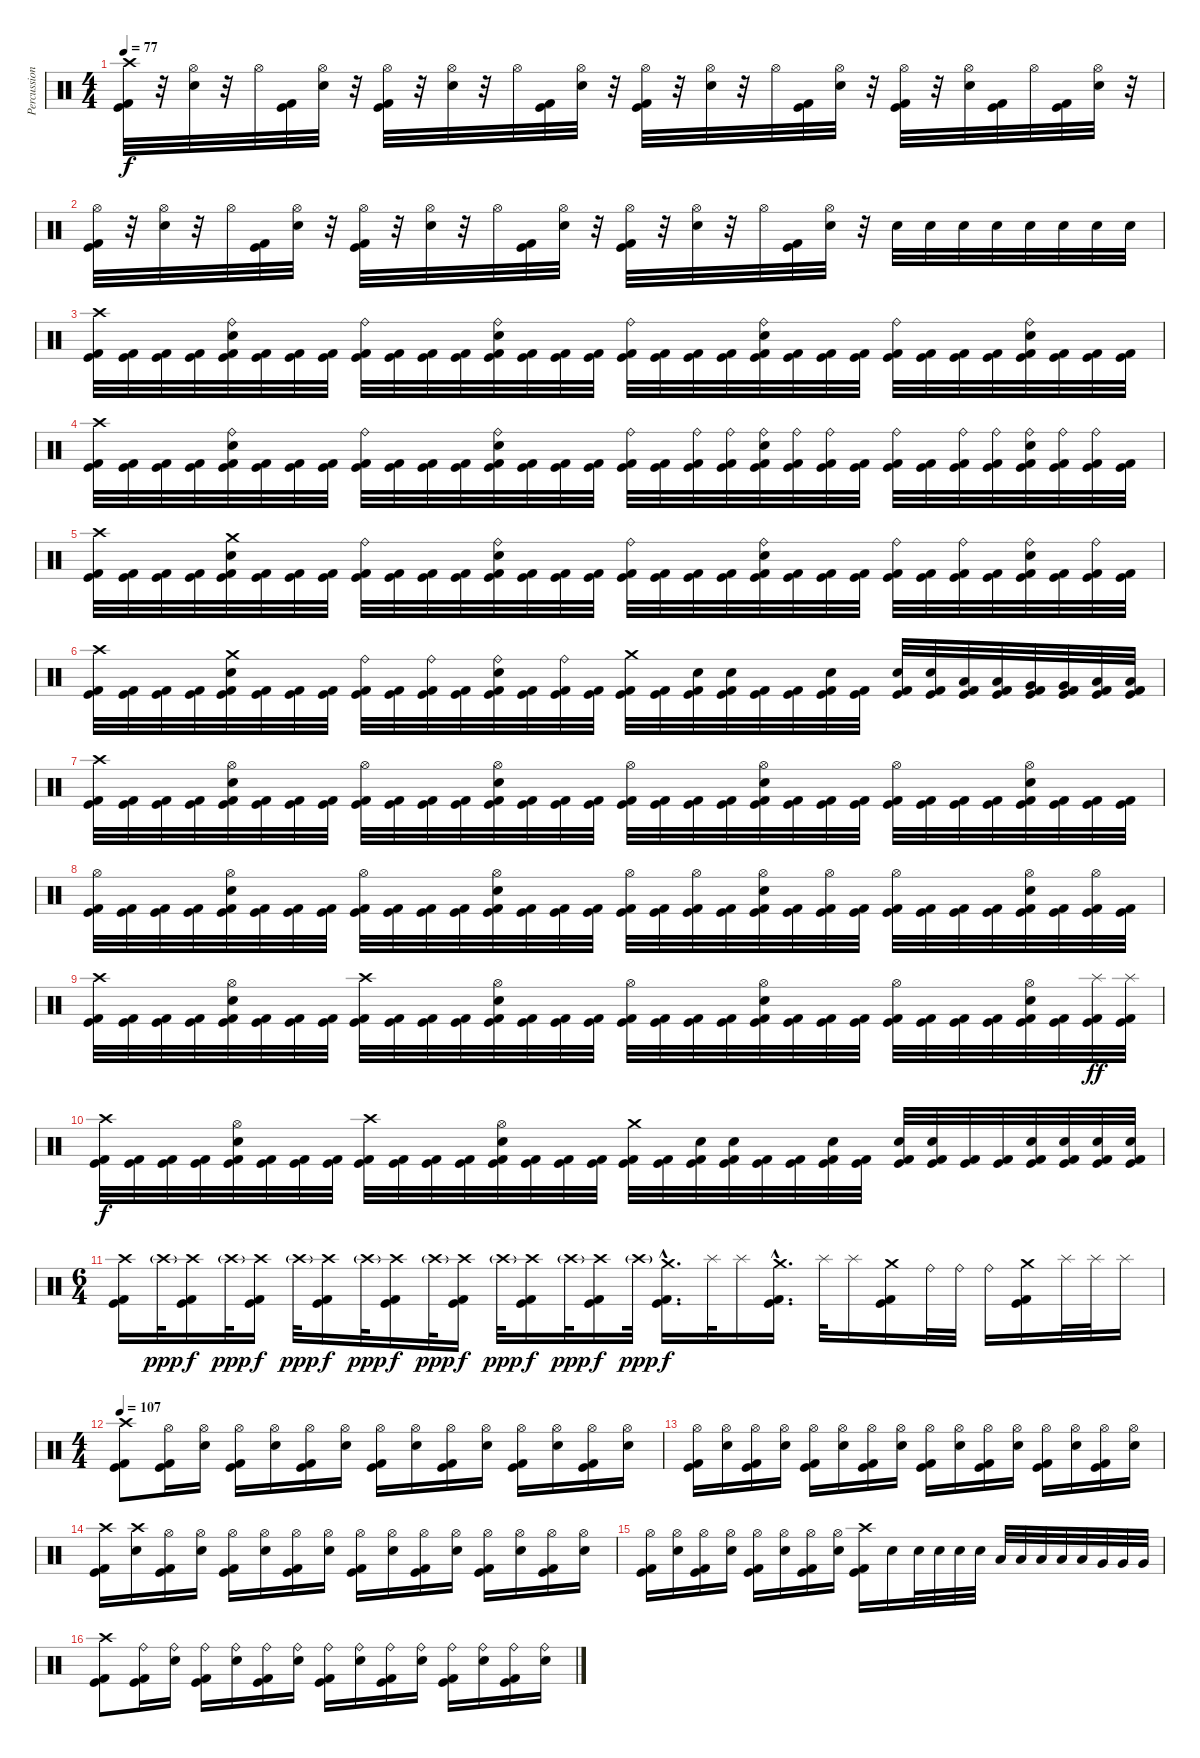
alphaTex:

\track ("Percussion" "Percussion") {instrument percussion}
\staff {score}
\articulation defaults
\ts (4 4)
\tempo 77
\clef neutral
\ks c
("Crash high (hit)" "Kick (hit)" "Kick (hit) 2").32{dy f} r.32 ("Hi-Hat (open)" "Electric Snare (hit)").32 r.32 "Hi-Hat (open)".32 ("Kick (hit)" "Kick (hit) 2").32 ("Hi-Hat (open)" "Electric Snare (hit)").32 r.32 ("Hi-Hat (open)" "Kick (hit)" "Kick (hit) 2").32 r.32 ("Hi-Hat (open)" "Electric Snare (hit)").32 r.32 "Hi-Hat (open)".32 ("Kick (hit)" "Kick (hit) 2").32 ("Hi-Hat (open)" "Electric Snare (hit)").32 r.32 ("Hi-Hat (open)" "Kick (hit)" "Kick (hit) 2").32 r.32 ("Hi-Hat (open)" "Electric Snare (hit)").32 r.32 "Hi-Hat (open)".32 ("Kick (hit)" "Kick (hit) 2").32 ("Hi-Hat (open)" "Electric Snare (hit)").32 r.32 ("Hi-Hat (open)" "Kick (hit)" "Kick (hit) 2").32 r.32 ("Hi-Hat (open)" "Electric Snare (hit)").32 ("Kick (hit)" "Kick (hit) 2").32 "Hi-Hat (open)".32 ("Kick (hit)" "Kick (hit) 2").32 ("Hi-Hat (open)" "Electric Snare (hit)").32 r.32 |
("Hi-Hat (open)" "Kick (hit)" "Kick (hit) 2").32 r.32 ("Hi-Hat (open)" "Electric Snare (hit)").32 r.32 "Hi-Hat (open)".32 ("Kick (hit)" "Kick (hit) 2").32 ("Hi-Hat (open)" "Electric Snare (hit)").32 r.32 ("Hi-Hat (open)" "Kick (hit)" "Kick (hit) 2").32 r.32 ("Hi-Hat (open)" "Electric Snare (hit)").32 r.32 "Hi-Hat (open)".32 ("Kick (hit)" "Kick (hit) 2").32 ("Hi-Hat (open)" "Electric Snare (hit)").32 r.32 ("Hi-Hat (open)" "Kick (hit)" "Kick (hit) 2").32 r.32 ("Hi-Hat (open)" "Electric Snare (hit)").32 r.32 "Hi-Hat (open)".32 ("Kick (hit)" "Kick (hit) 2").32 ("Hi-Hat (open)" "Electric Snare (hit)").32 r.32 "Electric Snare (hit)".32 "Electric Snare (hit)".32 "Electric Snare (hit)".32 "Electric Snare (hit)".32 "Electric Snare (hit)".32 "Electric Snare (hit)".32 "Electric Snare (hit)".32 "Electric Snare (hit)".32 |
("Crash high (hit)" "Kick (hit)" "Kick (hit) 2").32 ("Kick (hit)" "Kick (hit) 2").32 ("Kick (hit)" "Kick (hit) 2").32 ("Kick (hit)" "Kick (hit) 2").32 ("Ride (bell)" "Electric Snare (hit)" "Kick (hit)" "Kick (hit) 2").32 ("Kick (hit)" "Kick (hit) 2").32 ("Kick (hit)" "Kick (hit) 2").32 ("Kick (hit)" "Kick (hit) 2").32 ("Ride (bell)" "Kick (hit)" "Kick (hit) 2").32 ("Kick (hit)" "Kick (hit) 2").32 ("Kick (hit)" "Kick (hit) 2").32 ("Kick (hit)" "Kick (hit) 2").32 ("Ride (bell)" "Electric Snare (hit)" "Kick (hit)" "Kick (hit) 2").32 ("Kick (hit)" "Kick (hit) 2").32 ("Kick (hit)" "Kick (hit) 2").32 ("Kick (hit)" "Kick (hit) 2").32 ("Ride (bell)" "Kick (hit)" "Kick (hit) 2").32 ("Kick (hit)" "Kick (hit) 2").32 ("Kick (hit)" "Kick (hit) 2").32 ("Kick (hit)" "Kick (hit) 2").32 ("Ride (bell)" "Electric Snare (hit)" "Kick (hit)" "Kick (hit) 2").32 ("Kick (hit)" "Kick (hit) 2").32 ("Kick (hit)" "Kick (hit) 2").32 ("Kick (hit)" "Kick (hit) 2").32 ("Ride (bell)" "Kick (hit)" "Kick (hit) 2").32 ("Kick (hit)" "Kick (hit) 2").32 ("Kick (hit)" "Kick (hit) 2").32 ("Kick (hit)" "Kick (hit) 2").32 ("Ride (bell)" "Electric Snare (hit)" "Kick (hit)" "Kick (hit) 2").32 ("Kick (hit)" "Kick (hit) 2").32 ("Kick (hit)" "Kick (hit) 2").32 ("Kick (hit)" "Kick (hit) 2").32 |
("Crash high (hit)" "Kick (hit)" "Kick (hit) 2").32 ("Kick (hit)" "Kick (hit) 2").32 ("Kick (hit)" "Kick (hit) 2").32 ("Kick (hit)" "Kick (hit) 2").32 ("Ride (bell)" "Electric Snare (hit)" "Kick (hit)" "Kick (hit) 2").32 ("Kick (hit)" "Kick (hit) 2").32 ("Kick (hit)" "Kick (hit) 2").32 ("Kick (hit)" "Kick (hit) 2").32 ("Ride (bell)" "Kick (hit)" "Kick (hit) 2").32 ("Kick (hit)" "Kick (hit) 2").32 ("Kick (hit)" "Kick (hit) 2").32 ("Kick (hit)" "Kick (hit) 2").32 ("Ride (bell)" "Electric Snare (hit)" "Kick (hit)" "Kick (hit) 2").32 ("Kick (hit)" "Kick (hit) 2").32 ("Kick (hit)" "Kick (hit) 2").32 ("Kick (hit)" "Kick (hit) 2").32 ("Ride (bell)" "Kick (hit)" "Kick (hit) 2").32 ("Kick (hit)" "Kick (hit) 2").32 ("Ride (bell)" "Kick (hit)" "Kick (hit) 2").32 ("Ride (bell)" "Kick (hit)" "Kick (hit) 2").32 ("Ride (bell)" "Electric Snare (hit)" "Kick (hit)" "Kick (hit) 2").32 ("Ride (bell)" "Kick (hit)" "Kick (hit) 2").32 ("Ride (bell)" "Kick (hit)" "Kick (hit) 2").32 ("Kick (hit)" "Kick (hit) 2").32 ("Ride (bell)" "Kick (hit)" "Kick (hit) 2").32 ("Kick (hit)" "Kick (hit) 2").32 ("Ride (bell)" "Kick (hit)" "Kick (hit) 2").32 ("Ride (bell)" "Kick (hit)" "Kick (hit) 2").32 ("Ride (bell)" "Electric Snare (hit)" "Kick (hit)" "Kick (hit) 2").32 ("Ride (bell)" "Kick (hit)" "Kick (hit) 2").32 ("Ride (bell)" "Kick (hit)" "Kick (hit) 2").32 ("Kick (hit)" "Kick (hit) 2").32 |
("Crash high (hit)" "Kick (hit)" "Kick (hit) 2").32 ("Kick (hit)" "Kick (hit) 2").32 ("Kick (hit)" "Kick (hit) 2").32 ("Kick (hit)" "Kick (hit) 2").32 ("Crash medium (hit)" "Electric Snare (hit)" "Kick (hit)" "Kick (hit) 2").32 ("Kick (hit)" "Kick (hit) 2").32 ("Kick (hit)" "Kick (hit) 2").32 ("Kick (hit)" "Kick (hit) 2").32 ("Ride (bell)" "Kick (hit)" "Kick (hit) 2").32 ("Kick (hit)" "Kick (hit) 2").32 ("Kick (hit)" "Kick (hit) 2").32 ("Kick (hit)" "Kick (hit) 2").32 ("Ride (bell)" "Electric Snare (hit)" "Kick (hit)" "Kick (hit) 2").32 ("Kick (hit)" "Kick (hit) 2").32 ("Kick (hit)" "Kick (hit) 2").32 ("Kick (hit)" "Kick (hit) 2").32 ("Ride (bell)" "Kick (hit)" "Kick (hit) 2").32 ("Kick (hit)" "Kick (hit) 2").32 ("Kick (hit)" "Kick (hit) 2").32 ("Kick (hit)" "Kick (hit) 2").32 ("Ride (bell)" "Electric Snare (hit)" "Kick (hit)" "Kick (hit) 2").32 ("Kick (hit)" "Kick (hit) 2").32 ("Kick (hit)" "Kick (hit) 2").32 ("Kick (hit)" "Kick (hit) 2").32 ("Ride (bell)" "Kick (hit)" "Kick (hit) 2").32 ("Kick (hit)" "Kick (hit) 2").32 ("Ride (bell)" "Kick (hit)" "Kick (hit) 2").32 ("Kick (hit)" "Kick (hit) 2").32 ("Ride (bell)" "Electric Snare (hit)" "Kick (hit)" "Kick (hit) 2").32 ("Kick (hit)" "Kick (hit) 2").32 ("Ride (bell)" "Kick (hit)" "Kick (hit) 2").32 ("Kick (hit)" "Kick (hit) 2").32 |
("Crash high (hit)" "Kick (hit)" "Kick (hit) 2").32 ("Kick (hit)" "Kick (hit) 2").32 ("Kick (hit)" "Kick (hit) 2").32 ("Kick (hit)" "Kick (hit) 2").32 ("Crash medium (hit)" "Electric Snare (hit)" "Kick (hit)" "Kick (hit) 2").32 ("Kick (hit)" "Kick (hit) 2").32 ("Kick (hit)" "Kick (hit) 2").32 ("Kick (hit)" "Kick (hit) 2").32 ("Ride (bell)" "Kick (hit)" "Kick (hit) 2").32 ("Kick (hit)" "Kick (hit) 2").32 ("Ride (bell)" "Kick (hit)" "Kick (hit) 2").32 ("Kick (hit)" "Kick (hit) 2").32 ("Ride (bell)" "Electric Snare (hit)" "Kick (hit)" "Kick (hit) 2").32 ("Kick (hit)" "Kick (hit) 2").32 ("Ride (bell)" "Kick (hit)" "Kick (hit) 2").32 ("Kick (hit)" "Kick (hit) 2").32 ("Crash medium (hit)" "Kick (hit)" "Kick (hit) 2").32 ("Kick (hit)" "Kick (hit) 2").32 ("Electric Snare (hit)" "Kick (hit)" "Kick (hit) 2").32 ("Electric Snare (hit)" "Kick (hit)" "Kick (hit) 2").32 ("Kick (hit)" "Kick (hit) 2").32 ("Kick (hit)" "Kick (hit) 2").32 ("Electric Snare (hit)" "Kick (hit)" "Kick (hit) 2").32 ("Kick (hit)" "Kick (hit) 2").32 ("Electric Snare (hit)" "Kick (hit)" "Kick (hit) 2").32 ("Electric Snare (hit)" "Kick (hit)" "Kick (hit) 2").32 ("Low Tom (hit)" "Kick (hit)" "Kick (hit) 2").32 ("Low Tom (hit)" "Kick (hit)" "Kick (hit) 2").32 ("Very Low Tom (hit)" "Kick (hit)" "Kick (hit) 2").32 ("Very Low Tom (hit)" "Kick (hit)" "Kick (hit) 2").32 ("Low Floor Tom (hit)" "Kick (hit)" "Kick (hit) 2").32 ("Low Floor Tom (hit)" "Kick (hit)" "Kick (hit) 2").32 |
("Crash high (hit)" "Kick (hit)" "Kick (hit) 2").32 ("Kick (hit)" "Kick (hit) 2").32 ("Kick (hit)" "Kick (hit) 2").32 ("Kick (hit)" "Kick (hit) 2").32 ("Hi-Hat (open)" "Electric Snare (hit)" "Kick (hit)" "Kick (hit) 2").32 ("Kick (hit)" "Kick (hit) 2").32 ("Kick (hit)" "Kick (hit) 2").32 ("Kick (hit)" "Kick (hit) 2").32 ("Hi-Hat (open)" "Kick (hit)" "Kick (hit) 2").32 ("Kick (hit)" "Kick (hit) 2").32 ("Kick (hit)" "Kick (hit) 2").32 ("Kick (hit)" "Kick (hit) 2").32 ("Hi-Hat (open)" "Electric Snare (hit)" "Kick (hit)" "Kick (hit) 2").32 ("Kick (hit)" "Kick (hit) 2").32 ("Kick (hit)" "Kick (hit) 2").32 ("Kick (hit)" "Kick (hit) 2").32 ("Hi-Hat (open)" "Kick (hit)" "Kick (hit) 2").32 ("Kick (hit)" "Kick (hit) 2").32 ("Kick (hit)" "Kick (hit) 2").32 ("Kick (hit)" "Kick (hit) 2").32 ("Hi-Hat (open)" "Electric Snare (hit)" "Kick (hit)" "Kick (hit) 2").32 ("Kick (hit)" "Kick (hit) 2").32 ("Kick (hit)" "Kick (hit) 2").32 ("Kick (hit)" "Kick (hit) 2").32 ("Hi-Hat (open)" "Kick (hit)" "Kick (hit) 2").32 ("Kick (hit)" "Kick (hit) 2").32 ("Kick (hit)" "Kick (hit) 2").32 ("Kick (hit)" "Kick (hit) 2").32 ("Hi-Hat (open)" "Electric Snare (hit)" "Kick (hit)" "Kick (hit) 2").32 ("Kick (hit)" "Kick (hit) 2").32 ("Kick (hit)" "Kick (hit) 2").32 ("Kick (hit)" "Kick (hit) 2").32 |
("Hi-Hat (open)" "Kick (hit)" "Kick (hit) 2").32 ("Kick (hit)" "Kick (hit) 2").32 ("Kick (hit)" "Kick (hit) 2").32 ("Kick (hit)" "Kick (hit) 2").32 ("Hi-Hat (open)" "Electric Snare (hit)" "Kick (hit)" "Kick (hit) 2").32 ("Kick (hit)" "Kick (hit) 2").32 ("Kick (hit)" "Kick (hit) 2").32 ("Kick (hit)" "Kick (hit) 2").32 ("Hi-Hat (open)" "Kick (hit)" "Kick (hit) 2").32 ("Kick (hit)" "Kick (hit) 2").32 ("Kick (hit)" "Kick (hit) 2").32 ("Kick (hit)" "Kick (hit) 2").32 ("Hi-Hat (open)" "Electric Snare (hit)" "Kick (hit)" "Kick (hit) 2").32 ("Kick (hit)" "Kick (hit) 2").32 ("Kick (hit)" "Kick (hit) 2").32 ("Kick (hit)" "Kick (hit) 2").32 ("Hi-Hat (open)" "Kick (hit)" "Kick (hit) 2").32 ("Kick (hit)" "Kick (hit) 2").32 ("Hi-Hat (open)" "Kick (hit)" "Kick (hit) 2").32 ("Kick (hit)" "Kick (hit) 2").32 ("Hi-Hat (open)" "Electric Snare (hit)" "Kick (hit)" "Kick (hit) 2").32 ("Kick (hit)" "Kick (hit) 2").32 ("Hi-Hat (open)" "Kick (hit)" "Kick (hit) 2").32 ("Kick (hit)" "Kick (hit) 2").32 ("Hi-Hat (open)" "Kick (hit)" "Kick (hit) 2").32 ("Kick (hit)" "Kick (hit) 2").32 ("Kick (hit)" "Kick (hit) 2").32 ("Kick (hit)" "Kick (hit) 2").32 ("Hi-Hat (open)" "Electric Snare (hit)" "Kick (hit)" "Kick (hit) 2").32 ("Kick (hit)" "Kick (hit) 2").32 ("Hi-Hat (open)" "Kick (hit)" "Kick (hit) 2").32 ("Kick (hit)" "Kick (hit) 2").32 |
("Crash high (hit)" "Kick (hit)" "Kick (hit) 2").32 ("Kick (hit)" "Kick (hit) 2").32 ("Kick (hit)" "Kick (hit) 2").32 ("Kick (hit)" "Kick (hit) 2").32 ("Hi-Hat (open)" "Electric Snare (hit)" "Kick (hit)" "Kick (hit) 2").32 ("Kick (hit)" "Kick (hit) 2").32 ("Kick (hit)" "Kick (hit) 2").32 ("Kick (hit)" "Kick (hit) 2").32 ("Crash high (hit)" "Kick (hit)" "Kick (hit) 2").32 ("Kick (hit)" "Kick (hit) 2").32 ("Kick (hit)" "Kick (hit) 2").32 ("Kick (hit)" "Kick (hit) 2").32 ("Hi-Hat (open)" "Electric Snare (hit)" "Kick (hit)" "Kick (hit) 2").32 ("Kick (hit)" "Kick (hit) 2").32 ("Kick (hit)" "Kick (hit) 2").32 ("Kick (hit)" "Kick (hit) 2").32 ("Hi-Hat (open)" "Kick (hit)" "Kick (hit) 2").32 ("Kick (hit)" "Kick (hit) 2").32 ("Kick (hit)" "Kick (hit) 2").32 ("Kick (hit)" "Kick (hit) 2").32 ("Hi-Hat (open)" "Electric Snare (hit)" "Kick (hit)" "Kick (hit) 2").32 ("Kick (hit)" "Kick (hit) 2").32 ("Kick (hit)" "Kick (hit) 2").32 ("Kick (hit)" "Kick (hit) 2").32 ("Hi-Hat (open)" "Kick (hit)" "Kick (hit) 2").32 ("Kick (hit)" "Kick (hit) 2").32 ("Kick (hit)" "Kick (hit) 2").32 ("Kick (hit)" "Kick (hit) 2").32 ("Hi-Hat (open)" "Electric Snare (hit)" "Kick (hit)" "Kick (hit) 2").32 ("Kick (hit)" "Kick (hit) 2").32 ("Splash (hit)" "Kick (hit)" "Kick (hit) 2").32{dy ff} ("Splash (hit)" "Kick (hit)" "Kick (hit) 2").32 |
("Crash high (hit)" "Kick (hit)" "Kick (hit) 2").32{dy f} ("Kick (hit)" "Kick (hit) 2").32 ("Kick (hit)" "Kick (hit) 2").32 ("Kick (hit)" "Kick (hit) 2").32 ("Hi-Hat (open)" "Electric Snare (hit)" "Kick (hit)" "Kick (hit) 2").32 ("Kick (hit)" "Kick (hit) 2").32 ("Kick (hit)" "Kick (hit) 2").32 ("Kick (hit)" "Kick (hit) 2").32 ("Crash high (hit)" "Kick (hit)" "Kick (hit) 2").32 ("Kick (hit)" "Kick (hit) 2").32 ("Kick (hit)" "Kick (hit) 2").32 ("Kick (hit)" "Kick (hit) 2").32 ("Hi-Hat (open)" "Electric Snare (hit)" "Kick (hit)" "Kick (hit) 2").32 ("Kick (hit)" "Kick (hit) 2").32 ("Kick (hit)" "Kick (hit) 2").32 ("Kick (hit)" "Kick (hit) 2").32 ("Crash medium (hit)" "Kick (hit)" "Kick (hit) 2").32 ("Kick (hit)" "Kick (hit) 2").32 ("Electric Snare (hit)" "Kick (hit)" "Kick (hit) 2").32 ("Electric Snare (hit)" "Kick (hit)" "Kick (hit) 2").32 ("Kick (hit)" "Kick (hit) 2").32 ("Kick (hit)" "Kick (hit) 2").32 ("Electric Snare (hit)" "Kick (hit)" "Kick (hit) 2").32 ("Kick (hit)" "Kick (hit) 2").32 ("Electric Snare (hit)" "Kick (hit)" "Kick (hit) 2").32 ("Electric Snare (hit)" "Kick (hit)" "Kick (hit) 2").32 ("Kick (hit)" "Kick (hit) 2").32 ("Kick (hit)" "Kick (hit) 2").32 ("Electric Snare (hit)" "Kick (hit)" "Kick (hit) 2").32 ("Electric Snare (hit)" "Kick (hit)" "Kick (hit) 2").32 ("Electric Snare (hit)" "Kick (hit)" "Kick (hit) 2").32 ("Electric Snare (hit)" "Kick (hit)" "Kick (hit) 2").32 |
\ts (6 4)
("Crash high (hit)" "Kick (hit)" "Kick (hit) 2").16 "Crash high (hit)"{g}.32{dy ppp} ("Crash high (hit)" "Kick (hit)" "Kick (hit) 2").16{dy f} "Crash high (hit)"{g}.32{dy ppp} ("Crash high (hit)" "Kick (hit)" "Kick (hit) 2").16{dy f} "Crash high (hit)"{g}.32{dy ppp} ("Crash high (hit)" "Kick (hit)" "Kick (hit) 2").16{dy f} "Crash high (hit)"{g}.32{dy ppp} ("Crash high (hit)" "Kick (hit)" "Kick (hit) 2").16{dy f} "Crash high (hit)"{g}.32{dy ppp} ("Crash high (hit)" "Kick (hit)" "Kick (hit) 2").16{dy f} "Crash high (hit)"{g}.32{dy ppp} ("Crash high (hit)" "Kick (hit)" "Kick (hit) 2").16{dy f} "Crash high (hit)"{g}.32{dy ppp} ("Crash high (hit)" "Kick (hit)" "Kick (hit) 2").16{dy f} "Crash high (hit)"{g}.32{dy ppp} ("Crash medium (hit)"{hac} "Kick (hit)"{hac} "Kick (hit) 2"{hac}).16{d dy f} "Splash (hit)".32 "Splash (hit)".16 ("Crash medium (hit)"{hac} "Kick (hit)"{hac} "Kick (hit) 2"{hac}).16{d} "Splash (hit)".32 "Splash (hit)".16 ("Crash medium (hit)" "Kick (hit)" "Kick (hit) 2").16 "Ride (bell)".32 "Ride (bell)".32 "Ride (bell)".16 ("Crash medium (hit)" "Kick (hit)" "Kick (hit) 2").16 "Splash (hit)".32 "Splash (hit)".32 "Splash (hit)".16 |
\ts (4 4)
\tempo 107
("Crash high (hit)" "Kick (hit)" "Kick (hit) 2").8 ("Hi-Hat (open)" "Kick (hit)" "Kick (hit) 2").16 ("Hi-Hat (open)" "Electric Snare (hit)").16 ("Hi-Hat (open)" "Kick (hit)" "Kick (hit) 2").16 ("Hi-Hat (open)" "Electric Snare (hit)").16 ("Hi-Hat (open)" "Kick (hit)" "Kick (hit) 2").16 ("Hi-Hat (open)" "Electric Snare (hit)").16 ("Hi-Hat (open)" "Kick (hit)" "Kick (hit) 2").16 ("Hi-Hat (open)" "Electric Snare (hit)").16 ("Hi-Hat (open)" "Kick (hit)" "Kick (hit) 2").16 ("Hi-Hat (open)" "Electric Snare (hit)").16 ("Hi-Hat (open)" "Kick (hit)" "Kick (hit) 2").16 ("Hi-Hat (open)" "Electric Snare (hit)").16 ("Hi-Hat (open)" "Kick (hit)" "Kick (hit) 2").16 ("Hi-Hat (open)" "Electric Snare (hit)").16 |
("Hi-Hat (open)" "Kick (hit)" "Kick (hit) 2").16 ("Hi-Hat (open)" "Electric Snare (hit)").16 ("Hi-Hat (open)" "Kick (hit)" "Kick (hit) 2").16 ("Hi-Hat (open)" "Electric Snare (hit)").16 ("Hi-Hat (open)" "Kick (hit)" "Kick (hit) 2").16 ("Hi-Hat (open)" "Electric Snare (hit)").16 ("Hi-Hat (open)" "Kick (hit)" "Kick (hit) 2").16 ("Hi-Hat (open)" "Electric Snare (hit)").16 ("Hi-Hat (open)" "Kick (hit)" "Kick (hit) 2").16 ("Hi-Hat (open)" "Electric Snare (hit)").16 ("Hi-Hat (open)" "Kick (hit)" "Kick (hit) 2").16 ("Hi-Hat (open)" "Electric Snare (hit)").16 ("Hi-Hat (open)" "Kick (hit)" "Kick (hit) 2").16 ("Hi-Hat (open)" "Electric Snare (hit)").16 ("Hi-Hat (open)" "Kick (hit)" "Kick (hit) 2").16 ("Hi-Hat (open)" "Electric Snare (hit)").16 |
("Crash high (hit)" "Kick (hit)" "Kick (hit) 2").16 ("Crash high (hit)" "Electric Snare (hit)").16 ("Hi-Hat (open)" "Kick (hit)" "Kick (hit) 2").16 ("Hi-Hat (open)" "Electric Snare (hit)").16 ("Hi-Hat (open)" "Kick (hit)" "Kick (hit) 2").16 ("Hi-Hat (open)" "Electric Snare (hit)").16 ("Hi-Hat (open)" "Kick (hit)" "Kick (hit) 2").16 ("Hi-Hat (open)" "Electric Snare (hit)").16 ("Hi-Hat (open)" "Kick (hit)" "Kick (hit) 2").16 ("Hi-Hat (open)" "Electric Snare (hit)").16 ("Hi-Hat (open)" "Kick (hit)" "Kick (hit) 2").16 ("Hi-Hat (open)" "Electric Snare (hit)").16 ("Hi-Hat (open)" "Kick (hit)" "Kick (hit) 2").16 ("Hi-Hat (open)" "Electric Snare (hit)").16 ("Hi-Hat (open)" "Kick (hit)" "Kick (hit) 2").16 ("Hi-Hat (open)" "Electric Snare (hit)").16 |
("Hi-Hat (open)" "Kick (hit)" "Kick (hit) 2").16 ("Hi-Hat (open)" "Electric Snare (hit)").16 ("Hi-Hat (open)" "Kick (hit)" "Kick (hit) 2").16 ("Hi-Hat (open)" "Electric Snare (hit)").16 ("Hi-Hat (open)" "Kick (hit)" "Kick (hit) 2").16 ("Hi-Hat (open)" "Electric Snare (hit)").16 ("Hi-Hat (open)" "Kick (hit)" "Kick (hit) 2").16 ("Hi-Hat (open)" "Electric Snare (hit)").16 ("Crash high (hit)" "Kick (hit)" "Kick (hit) 2").16 "Electric Snare (hit)".16 "Electric Snare (hit)".32 "Electric Snare (hit)".32 "Electric Snare (hit)".32 "Electric Snare (hit)".32 "Low Tom (hit)".32 "Low Tom (hit)".32 "Low Tom (hit)".32 "Low Tom (hit)".32 "Low Tom (hit)".32 "Very Low Tom (hit)".32 "Very Low Tom (hit)".32 "Very Low Tom (hit)".32 |
("Crash high (hit)" "Kick (hit)" "Kick (hit) 2").8 ("Ride (bell)" "Kick (hit)" "Kick (hit) 2").16 ("Ride (bell)" "Electric Snare (hit)").16 ("Ride (bell)" "Kick (hit)" "Kick (hit) 2").16 ("Ride (bell)" "Electric Snare (hit)").16 ("Ride (bell)" "Kick (hit)" "Kick (hit) 2").16 ("Ride (bell)" "Electric Snare (hit)").16 ("Ride (bell)" "Kick (hit)" "Kick (hit) 2").16 ("Ride (bell)" "Electric Snare (hit)").16 ("Ride (bell)" "Kick (hit)" "Kick (hit) 2").16 ("Ride (bell)" "Electric Snare (hit)").16 ("Ride (bell)" "Kick (hit)" "Kick (hit) 2").16 ("Ride (bell)" "Electric Snare (hit)").16 ("Ride (bell)" "Kick (hit)" "Kick (hit) 2").16 ("Ride (bell)" "Electric Snare (hit)").16
